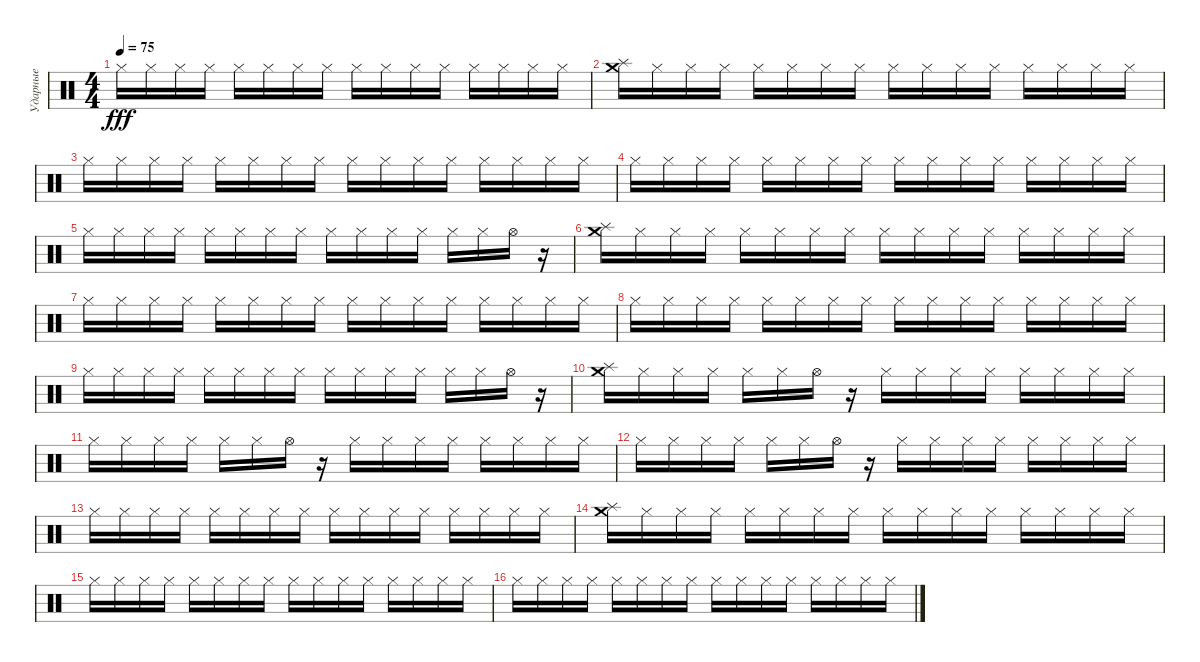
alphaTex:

\track ("Ударные" "Ударные") {instrument percussion}
\staff {score}
\articulation defaults
\ts (4 4)
\tempo 75
\clef neutral
\ks c "Hi-Hat (closed)".16{dy fff} "Hi-Hat (closed)".16 "Hi-Hat (closed)".16 "Hi-Hat (closed)".16 "Hi-Hat (closed)".16 "Hi-Hat (closed)".16 "Hi-Hat (closed)".16 "Hi-Hat (closed)".16 "Hi-Hat (closed)".16 "Hi-Hat (closed)".16 "Hi-Hat (closed)".16 "Hi-Hat (closed)".16 "Hi-Hat (closed)".16 "Hi-Hat (closed)".16 "Hi-Hat (closed)".16 "Hi-Hat (closed)".16
|
("Splash (hit)" "Crash medium (hit)").16 "Hi-Hat (closed)".16 "Hi-Hat (closed)".16 "Hi-Hat (closed)".16 "Hi-Hat (closed)".16 "Hi-Hat (closed)".16 "Hi-Hat (closed)".16 "Hi-Hat (closed)".16 "Hi-Hat (closed)".16 "Hi-Hat (closed)".16 "Hi-Hat (closed)".16 "Hi-Hat (closed)".16 "Hi-Hat (closed)".16 "Hi-Hat (closed)".16 "Hi-Hat (closed)".16 "Hi-Hat (closed)".16 |
"Hi-Hat (closed)".16 "Hi-Hat (closed)".16 "Hi-Hat (closed)".16 "Hi-Hat (closed)".16 "Hi-Hat (closed)".16 "Hi-Hat (closed)".16 "Hi-Hat (closed)".16 "Hi-Hat (closed)".16 "Hi-Hat (closed)".16 "Hi-Hat (closed)".16 "Hi-Hat (closed)".16 "Hi-Hat (closed)".16 "Hi-Hat (closed)".16 "Hi-Hat (closed)".16 "Hi-Hat (closed)".16 "Hi-Hat (closed)".16 |
"Hi-Hat (closed)".16 "Hi-Hat (closed)".16 "Hi-Hat (closed)".16 "Hi-Hat (closed)".16 "Hi-Hat (closed)".16 "Hi-Hat (closed)".16 "Hi-Hat (closed)".16 "Hi-Hat (closed)".16 "Hi-Hat (closed)".16 "Hi-Hat (closed)".16 "Hi-Hat (closed)".16 "Hi-Hat (closed)".16 "Hi-Hat (closed)".16 "Hi-Hat (closed)".16 "Hi-Hat (closed)".16 "Hi-Hat (closed)".16 |
"Hi-Hat (closed)".16 "Hi-Hat (closed)".16 "Hi-Hat (closed)".16 "Hi-Hat (closed)".16 "Hi-Hat (closed)".16 "Hi-Hat (closed)".16 "Hi-Hat (closed)".16 "Hi-Hat (closed)".16 "Hi-Hat (closed)".16 "Hi-Hat (closed)".16 "Hi-Hat (closed)".16 "Hi-Hat (closed)".16 "Hi-Hat (closed)".16 "Hi-Hat (closed)".16 "Hi-Hat (open)".16 r.16 |
("Crash medium (hit)" "Splash (hit)").16 "Hi-Hat (closed)".16 "Hi-Hat (closed)".16 "Hi-Hat (closed)".16 "Hi-Hat (closed)".16 "Hi-Hat (closed)".16 "Hi-Hat (closed)".16 "Hi-Hat (closed)".16 "Hi-Hat (closed)".16 "Hi-Hat (closed)".16 "Hi-Hat (closed)".16 "Hi-Hat (closed)".16 "Hi-Hat (closed)".16 "Hi-Hat (closed)".16 "Hi-Hat (closed)".16 "Hi-Hat (closed)".16 |
"Hi-Hat (closed)".16 "Hi-Hat (closed)".16 "Hi-Hat (closed)".16 "Hi-Hat (closed)".16 "Hi-Hat (closed)".16 "Hi-Hat (closed)".16 "Hi-Hat (closed)".16 "Hi-Hat (closed)".16 "Hi-Hat (closed)".16 "Hi-Hat (closed)".16 "Hi-Hat (closed)".16 "Hi-Hat (closed)".16 "Hi-Hat (closed)".16 "Hi-Hat (closed)".16 "Hi-Hat (closed)".16 "Hi-Hat (closed)".16 |
"Hi-Hat (closed)".16 "Hi-Hat (closed)".16 "Hi-Hat (closed)".16 "Hi-Hat (closed)".16 "Hi-Hat (closed)".16 "Hi-Hat (closed)".16 "Hi-Hat (closed)".16 "Hi-Hat (closed)".16 "Hi-Hat (closed)".16 "Hi-Hat (closed)".16 "Hi-Hat (closed)".16 "Hi-Hat (closed)".16 "Hi-Hat (closed)".16 "Hi-Hat (closed)".16 "Hi-Hat (closed)".16 "Hi-Hat (closed)".16 |
"Hi-Hat (closed)".16 "Hi-Hat (closed)".16 "Hi-Hat (closed)".16 "Hi-Hat (closed)".16 "Hi-Hat (closed)".16 "Hi-Hat (closed)".16 "Hi-Hat (closed)".16 "Hi-Hat (closed)".16 "Hi-Hat (closed)".16 "Hi-Hat (closed)".16 "Hi-Hat (closed)".16 "Hi-Hat (closed)".16 "Hi-Hat (closed)".16 "Hi-Hat (closed)".16 "Hi-Hat (open)".16 r.16 |
("Splash (hit)" "Crash medium (hit)").16 "Hi-Hat (closed)".16 "Hi-Hat (closed)".16 "Hi-Hat (closed)".16 "Hi-Hat (closed)".16 "Hi-Hat (closed)".16 "Hi-Hat (open)".16 r.16 "Hi-Hat (closed)".16 "Hi-Hat (closed)".16 "Hi-Hat (closed)".16 "Hi-Hat (closed)".16 "Hi-Hat (closed)".16 "Hi-Hat (closed)".16 "Hi-Hat (closed)".16 "Hi-Hat (closed)".16 |
"Hi-Hat (closed)".16 "Hi-Hat (closed)".16 "Hi-Hat (closed)".16 "Hi-Hat (closed)".16 "Hi-Hat (closed)".16 "Hi-Hat (closed)".16 "Hi-Hat (open)".16 r.16 "Hi-Hat (closed)".16 "Hi-Hat (closed)".16 "Hi-Hat (closed)".16 "Hi-Hat (closed)".16 "Hi-Hat (closed)".16 "Hi-Hat (closed)".16 "Hi-Hat (closed)".16 "Hi-Hat (closed)".16 |
"Hi-Hat (closed)".16 "Hi-Hat (closed)".16 "Hi-Hat (closed)".16 "Hi-Hat (closed)".16 "Hi-Hat (closed)".16 "Hi-Hat (closed)".16 "Hi-Hat (open)".16 r.16 "Hi-Hat (closed)".16 "Hi-Hat (closed)".16 "Hi-Hat (closed)".16 "Hi-Hat (closed)".16 "Hi-Hat (closed)".16 "Hi-Hat (closed)".16 "Hi-Hat (closed)".16 "Hi-Hat (closed)".16 |
"Hi-Hat (closed)".16 "Hi-Hat (closed)".16 "Hi-Hat (closed)".16 "Hi-Hat (closed)".16 "Hi-Hat (closed)".16 "Hi-Hat (closed)".16 "Hi-Hat (closed)".16 "Hi-Hat (closed)".16 "Hi-Hat (closed)".16 "Hi-Hat (closed)".16 "Hi-Hat (closed)".16 "Hi-Hat (closed)".16 "Hi-Hat (closed)".16 "Hi-Hat (closed)".16 "Hi-Hat (closed)".16 "Hi-Hat (closed)".16 |
("Splash (hit)" "Crash medium (hit)").16 "Hi-Hat (closed)".16 "Hi-Hat (closed)".16 "Hi-Hat (closed)".16 "Hi-Hat (closed)".16 "Hi-Hat (closed)".16 "Hi-Hat (closed)".16 "Hi-Hat (closed)".16 "Hi-Hat (closed)".16 "Hi-Hat (closed)".16 "Hi-Hat (closed)".16 "Hi-Hat (closed)".16 "Hi-Hat (closed)".16 "Hi-Hat (closed)".16 "Hi-Hat (closed)".16 "Hi-Hat (closed)".16 |
"Hi-Hat (closed)".16 "Hi-Hat (closed)".16 "Hi-Hat (closed)".16 "Hi-Hat (closed)".16 "Hi-Hat (closed)".16 "Hi-Hat (closed)".16 "Hi-Hat (closed)".16 "Hi-Hat (closed)".16 "Hi-Hat (closed)".16 "Hi-Hat (closed)".16 "Hi-Hat (closed)".16 "Hi-Hat (closed)".16 "Hi-Hat (closed)".16 "Hi-Hat (closed)".16 "Hi-Hat (closed)".16 "Hi-Hat (closed)".16 |
"Hi-Hat (closed)".16 "Hi-Hat (closed)".16 "Hi-Hat (closed)".16 "Hi-Hat (closed)".16 "Hi-Hat (closed)".16 "Hi-Hat (closed)".16 "Hi-Hat (closed)".16 "Hi-Hat (closed)".16 "Hi-Hat (closed)".16 "Hi-Hat (closed)".16 "Hi-Hat (closed)".16 "Hi-Hat (closed)".16 "Hi-Hat (closed)".16 "Hi-Hat (closed)".16 "Hi-Hat (closed)".16 "Hi-Hat (closed)".16
